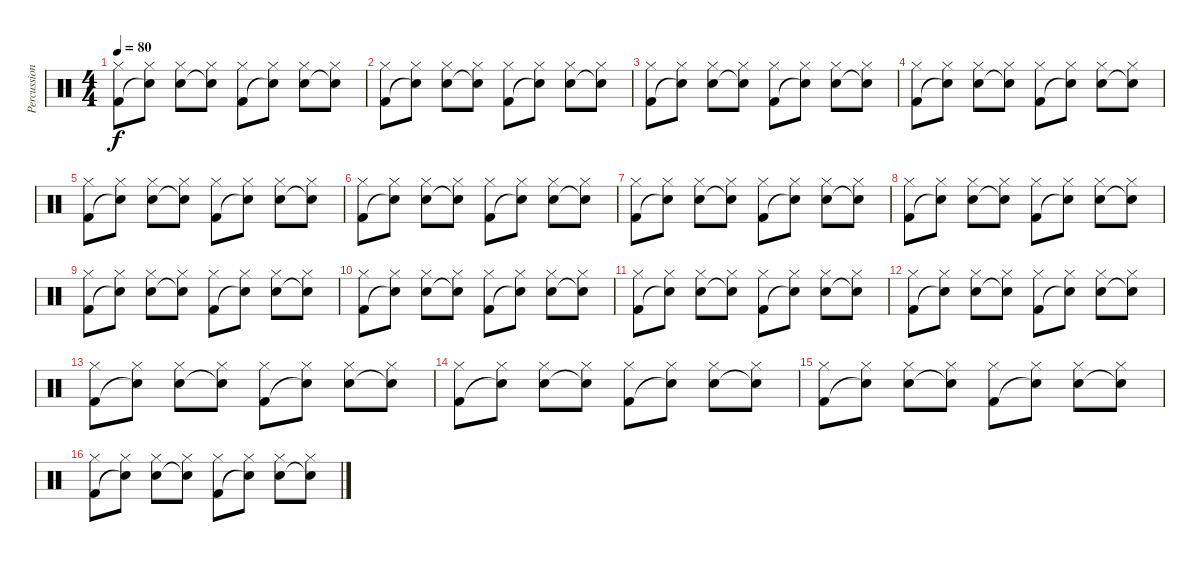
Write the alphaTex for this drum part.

\track ("Percussions" "Percussion") {instrument percussion}
\staff {score}
\articulation defaults
\ts (4 4)
\tempo 80
\clef neutral
\ks c
("Hi-Hat (closed)" "Kick (hit) 2").8{dy f} ("Hi-Hat (closed)" "Snare (hit)"{t}).8 ("Hi-Hat (closed)" "Electric Snare (hit)").8 ("Hi-Hat (closed)" "Snare (hit)"{t}).8 ("Hi-Hat (closed)" "Kick (hit) 2").8 ("Hi-Hat (closed)" "Snare (hit)"{t}).8 ("Hi-Hat (closed)" "Electric Snare (hit)").8 ("Hi-Hat (closed)" "Snare (hit)"{t}).8 |
("Hi-Hat (closed)" "Kick (hit) 2").8 ("Hi-Hat (closed)" "Snare (hit)"{t}).8 ("Hi-Hat (closed)" "Electric Snare (hit)").8 ("Hi-Hat (closed)" "Snare (hit)"{t}).8 ("Hi-Hat (closed)" "Kick (hit) 2").8 ("Hi-Hat (closed)" "Snare (hit)"{t}).8 ("Hi-Hat (closed)" "Electric Snare (hit)").8 ("Hi-Hat (closed)" "Snare (hit)"{t}).8 |
("Hi-Hat (closed)" "Kick (hit) 2").8 ("Hi-Hat (closed)" "Snare (hit)"{t}).8 ("Hi-Hat (closed)" "Electric Snare (hit)").8 ("Hi-Hat (closed)" "Snare (hit)"{t}).8 ("Hi-Hat (closed)" "Kick (hit) 2").8 ("Hi-Hat (closed)" "Snare (hit)"{t}).8 ("Hi-Hat (closed)" "Electric Snare (hit)").8 ("Hi-Hat (closed)" "Snare (hit)"{t}).8 |
("Hi-Hat (closed)" "Kick (hit) 2").8 ("Hi-Hat (closed)" "Snare (hit)"{t}).8 ("Hi-Hat (closed)" "Electric Snare (hit)").8 ("Hi-Hat (closed)" "Snare (hit)"{t}).8 ("Hi-Hat (closed)" "Kick (hit) 2").8 ("Hi-Hat (closed)" "Snare (hit)"{t}).8 ("Hi-Hat (closed)" "Electric Snare (hit)").8 ("Hi-Hat (closed)" "Snare (hit)"{t}).8 |
("Hi-Hat (closed)" "Kick (hit) 2").8 ("Hi-Hat (closed)" "Snare (hit)"{t}).8 ("Hi-Hat (closed)" "Electric Snare (hit)").8 ("Hi-Hat (closed)" "Snare (hit)"{t}).8 ("Hi-Hat (closed)" "Kick (hit) 2").8 ("Hi-Hat (closed)" "Snare (hit)"{t}).8 ("Hi-Hat (closed)" "Electric Snare (hit)").8 ("Hi-Hat (closed)" "Snare (hit)"{t}).8 |
("Hi-Hat (closed)" "Kick (hit) 2").8 ("Hi-Hat (closed)" "Snare (hit)"{t}).8 ("Hi-Hat (closed)" "Electric Snare (hit)").8 ("Hi-Hat (closed)" "Snare (hit)"{t}).8 ("Hi-Hat (closed)" "Kick (hit) 2").8 ("Hi-Hat (closed)" "Snare (hit)"{t}).8 ("Hi-Hat (closed)" "Electric Snare (hit)").8 ("Hi-Hat (closed)" "Snare (hit)"{t}).8 |
("Hi-Hat (closed)" "Kick (hit) 2").8 ("Hi-Hat (closed)" "Snare (hit)"{t}).8 ("Hi-Hat (closed)" "Electric Snare (hit)").8 ("Hi-Hat (closed)" "Snare (hit)"{t}).8 ("Hi-Hat (closed)" "Kick (hit) 2").8 ("Hi-Hat (closed)" "Snare (hit)"{t}).8 ("Hi-Hat (closed)" "Electric Snare (hit)").8 ("Hi-Hat (closed)" "Snare (hit)"{t}).8 |
("Hi-Hat (closed)" "Kick (hit) 2").8 ("Hi-Hat (closed)" "Snare (hit)"{t}).8 ("Hi-Hat (closed)" "Electric Snare (hit)").8 ("Hi-Hat (closed)" "Snare (hit)"{t}).8 ("Hi-Hat (closed)" "Kick (hit) 2").8 ("Hi-Hat (closed)" "Snare (hit)"{t}).8 ("Hi-Hat (closed)" "Electric Snare (hit)").8 ("Hi-Hat (closed)" "Snare (hit)"{t}).8 |
("Hi-Hat (closed)" "Kick (hit) 2").8 ("Hi-Hat (closed)" "Snare (hit)"{t}).8 ("Hi-Hat (closed)" "Electric Snare (hit)").8 ("Hi-Hat (closed)" "Snare (hit)"{t}).8 ("Hi-Hat (closed)" "Kick (hit) 2").8 ("Hi-Hat (closed)" "Snare (hit)"{t}).8 ("Hi-Hat (closed)" "Electric Snare (hit)").8 ("Hi-Hat (closed)" "Snare (hit)"{t}).8 |
("Hi-Hat (closed)" "Kick (hit) 2").8 ("Hi-Hat (closed)" "Snare (hit)"{t}).8 ("Hi-Hat (closed)" "Electric Snare (hit)").8 ("Hi-Hat (closed)" "Snare (hit)"{t}).8 ("Hi-Hat (closed)" "Kick (hit) 2").8 ("Hi-Hat (closed)" "Snare (hit)"{t}).8 ("Hi-Hat (closed)" "Electric Snare (hit)").8 ("Hi-Hat (closed)" "Snare (hit)"{t}).8 |
("Hi-Hat (closed)" "Kick (hit) 2").8 ("Hi-Hat (closed)" "Snare (hit)"{t}).8 ("Hi-Hat (closed)" "Electric Snare (hit)").8 ("Hi-Hat (closed)" "Snare (hit)"{t}).8 ("Hi-Hat (closed)" "Kick (hit) 2").8 ("Hi-Hat (closed)" "Snare (hit)"{t}).8 ("Hi-Hat (closed)" "Electric Snare (hit)").8 ("Hi-Hat (closed)" "Snare (hit)"{t}).8 |
("Hi-Hat (closed)" "Kick (hit) 2").8 ("Hi-Hat (closed)" "Snare (hit)"{t}).8 ("Hi-Hat (closed)" "Electric Snare (hit)").8 ("Hi-Hat (closed)" "Snare (hit)"{t}).8 ("Hi-Hat (closed)" "Kick (hit) 2").8 ("Hi-Hat (closed)" "Snare (hit)"{t}).8 ("Hi-Hat (closed)" "Electric Snare (hit)").8 ("Hi-Hat (closed)" "Snare (hit)"{t}).8 |
("Hi-Hat (closed)" "Kick (hit) 2").8 ("Hi-Hat (closed)" "Snare (hit)"{t}).8 ("Hi-Hat (closed)" "Electric Snare (hit)").8 ("Hi-Hat (closed)" "Snare (hit)"{t}).8 ("Hi-Hat (closed)" "Kick (hit) 2").8 ("Hi-Hat (closed)" "Snare (hit)"{t}).8 ("Hi-Hat (closed)" "Electric Snare (hit)").8 ("Hi-Hat (closed)" "Snare (hit)"{t}).8 |
("Hi-Hat (closed)" "Kick (hit) 2").8 ("Hi-Hat (closed)" "Snare (hit)"{t}).8 ("Hi-Hat (closed)" "Electric Snare (hit)").8 ("Hi-Hat (closed)" "Snare (hit)"{t}).8 ("Hi-Hat (closed)" "Kick (hit) 2").8 ("Hi-Hat (closed)" "Snare (hit)"{t}).8 ("Hi-Hat (closed)" "Electric Snare (hit)").8 ("Hi-Hat (closed)" "Snare (hit)"{t}).8 |
("Hi-Hat (closed)" "Kick (hit) 2").8 ("Hi-Hat (closed)" "Snare (hit)"{t}).8 ("Hi-Hat (closed)" "Electric Snare (hit)").8 ("Hi-Hat (closed)" "Snare (hit)"{t}).8 ("Hi-Hat (closed)" "Kick (hit) 2").8 ("Hi-Hat (closed)" "Snare (hit)"{t}).8 ("Hi-Hat (closed)" "Electric Snare (hit)").8 ("Hi-Hat (closed)" "Snare (hit)"{t}).8 |
("Hi-Hat (closed)" "Kick (hit) 2").8 ("Hi-Hat (closed)" "Snare (hit)"{t}).8 ("Hi-Hat (closed)" "Electric Snare (hit)").8 ("Hi-Hat (closed)" "Snare (hit)"{t}).8 ("Hi-Hat (closed)" "Kick (hit) 2").8 ("Hi-Hat (closed)" "Snare (hit)"{t}).8 ("Hi-Hat (closed)" "Electric Snare (hit)").8 ("Hi-Hat (closed)" "Snare (hit)"{t}).8
